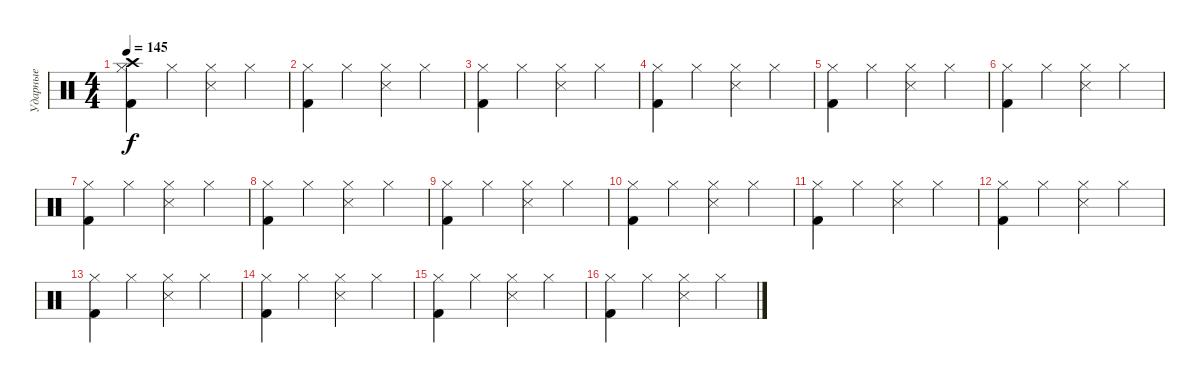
\track ("Ударные" "Ударные") {instrument percussion}
\staff {score}
\articulation defaults
\ts (4 4)
\tempo 145
\clef neutral
\ks c
("Crash high (hit)" "Hi-Hat (closed)" "Kick (hit) 2").4{dy f} "Hi-Hat (closed)".4 ("Snare (side stick) 3" "Hi-Hat (closed)").4 "Hi-Hat (closed)".4 |
("Kick (hit) 2" "Hi-Hat (closed)").4 "Hi-Hat (closed)".4 ("Snare (side stick) 3" "Hi-Hat (closed)").4 "Hi-Hat (closed)".4 |
("Kick (hit) 2" "Hi-Hat (closed)").4 "Hi-Hat (closed)".4 ("Snare (side stick) 3" "Hi-Hat (closed)").4 "Hi-Hat (closed)".4 |
("Hi-Hat (closed)" "Kick (hit) 2").4 "Hi-Hat (closed)".4 ("Snare (side stick) 3" "Hi-Hat (closed)").4 "Hi-Hat (closed)".4 |
("Kick (hit) 2" "Hi-Hat (closed)").4 "Hi-Hat (closed)".4 ("Hi-Hat (closed)" "Snare (side stick) 3").4 "Hi-Hat (closed)".4 |
("Kick (hit) 2" "Hi-Hat (closed)").4 "Hi-Hat (closed)".4 ("Snare (side stick) 3" "Hi-Hat (closed)").4 "Hi-Hat (closed)".4 |
("Kick (hit) 2" "Hi-Hat (closed)").4 "Hi-Hat (closed)".4 ("Snare (side stick) 3" "Hi-Hat (closed)").4 "Hi-Hat (closed)".4 |
("Kick (hit) 2" "Hi-Hat (closed)").4 "Hi-Hat (closed)".4 ("Snare (side stick) 3" "Hi-Hat (closed)").4 "Hi-Hat (closed)".4 |
("Hi-Hat (closed)" "Kick (hit) 2").4 "Hi-Hat (closed)".4 ("Hi-Hat (closed)" "Snare (side stick) 3").4 "Hi-Hat (closed)".4 |
("Kick (hit) 2" "Hi-Hat (closed)").4 "Hi-Hat (closed)".4 ("Snare (side stick) 3" "Hi-Hat (closed)").4 "Hi-Hat (closed)".4 |
("Kick (hit) 2" "Hi-Hat (closed)").4 "Hi-Hat (closed)".4 ("Snare (side stick) 3" "Hi-Hat (closed)").4 "Hi-Hat (closed)".4 |
("Hi-Hat (closed)" "Kick (hit) 2").4 "Hi-Hat (closed)".4 ("Hi-Hat (closed)" "Snare (side stick) 3").4 "Hi-Hat (closed)".4 |
("Kick (hit) 2" "Hi-Hat (closed)").4 "Hi-Hat (closed)".4 ("Hi-Hat (closed)" "Snare (side stick) 3").4 "Hi-Hat (closed)".4 |
("Hi-Hat (closed)" "Kick (hit) 2").4 "Hi-Hat (closed)".4 ("Hi-Hat (closed)" "Snare (side stick) 3").4 "Hi-Hat (closed)".4 |
("Kick (hit) 2" "Hi-Hat (closed)").4 "Hi-Hat (closed)".4 ("Snare (side stick) 3" "Hi-Hat (closed)").4 "Hi-Hat (closed)".4 |
("Hi-Hat (closed)" "Kick (hit) 2").4 "Hi-Hat (closed)".4 ("Hi-Hat (closed)" "Snare (side stick) 3").4 "Hi-Hat (closed)".4
